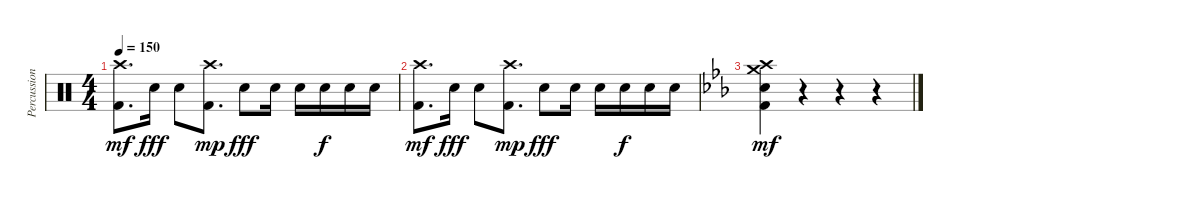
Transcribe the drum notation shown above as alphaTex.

\track ("Percussions" "Percussion") {instrument percussion}
\staff {score}
\articulation defaults
\ts (4 4)
\tempo 150
\clef neutral
\ks c
("Kick (hit) 2" "Crash high (hit)").8{d dy mf} "Snare (hit) 2".16{dy fff} "Snare (hit) 2".8 ("Kick (hit) 2" "Crash high (hit)").8{d dy mp} "Snare (hit) 2".8{dy fff} "Snare (hit) 2".16 "Snare (hit) 2".16 "Snare (hit) 2".16{dy f} "Snare (hit) 2".16 "Snare (hit) 2".16 |
("Kick (hit) 2" "Crash high (hit)").8{d dy mf} "Snare (hit) 2".16{dy fff} "Snare (hit) 2".8 ("Kick (hit) 2" "Crash high (hit)").8{d dy mp} "Snare (hit) 2".8{dy fff} "Snare (hit) 2".16 "Snare (hit) 2".16 "Snare (hit) 2".16{dy f} "Snare (hit) 2".16 "Snare (hit) 2".16 |
\ks eb
("Kick (hit) 2" "Snare (hit) 2" "Crash high (hit)" "Crash medium (hit)").4{dy mf} r.4 r.4 r.4
